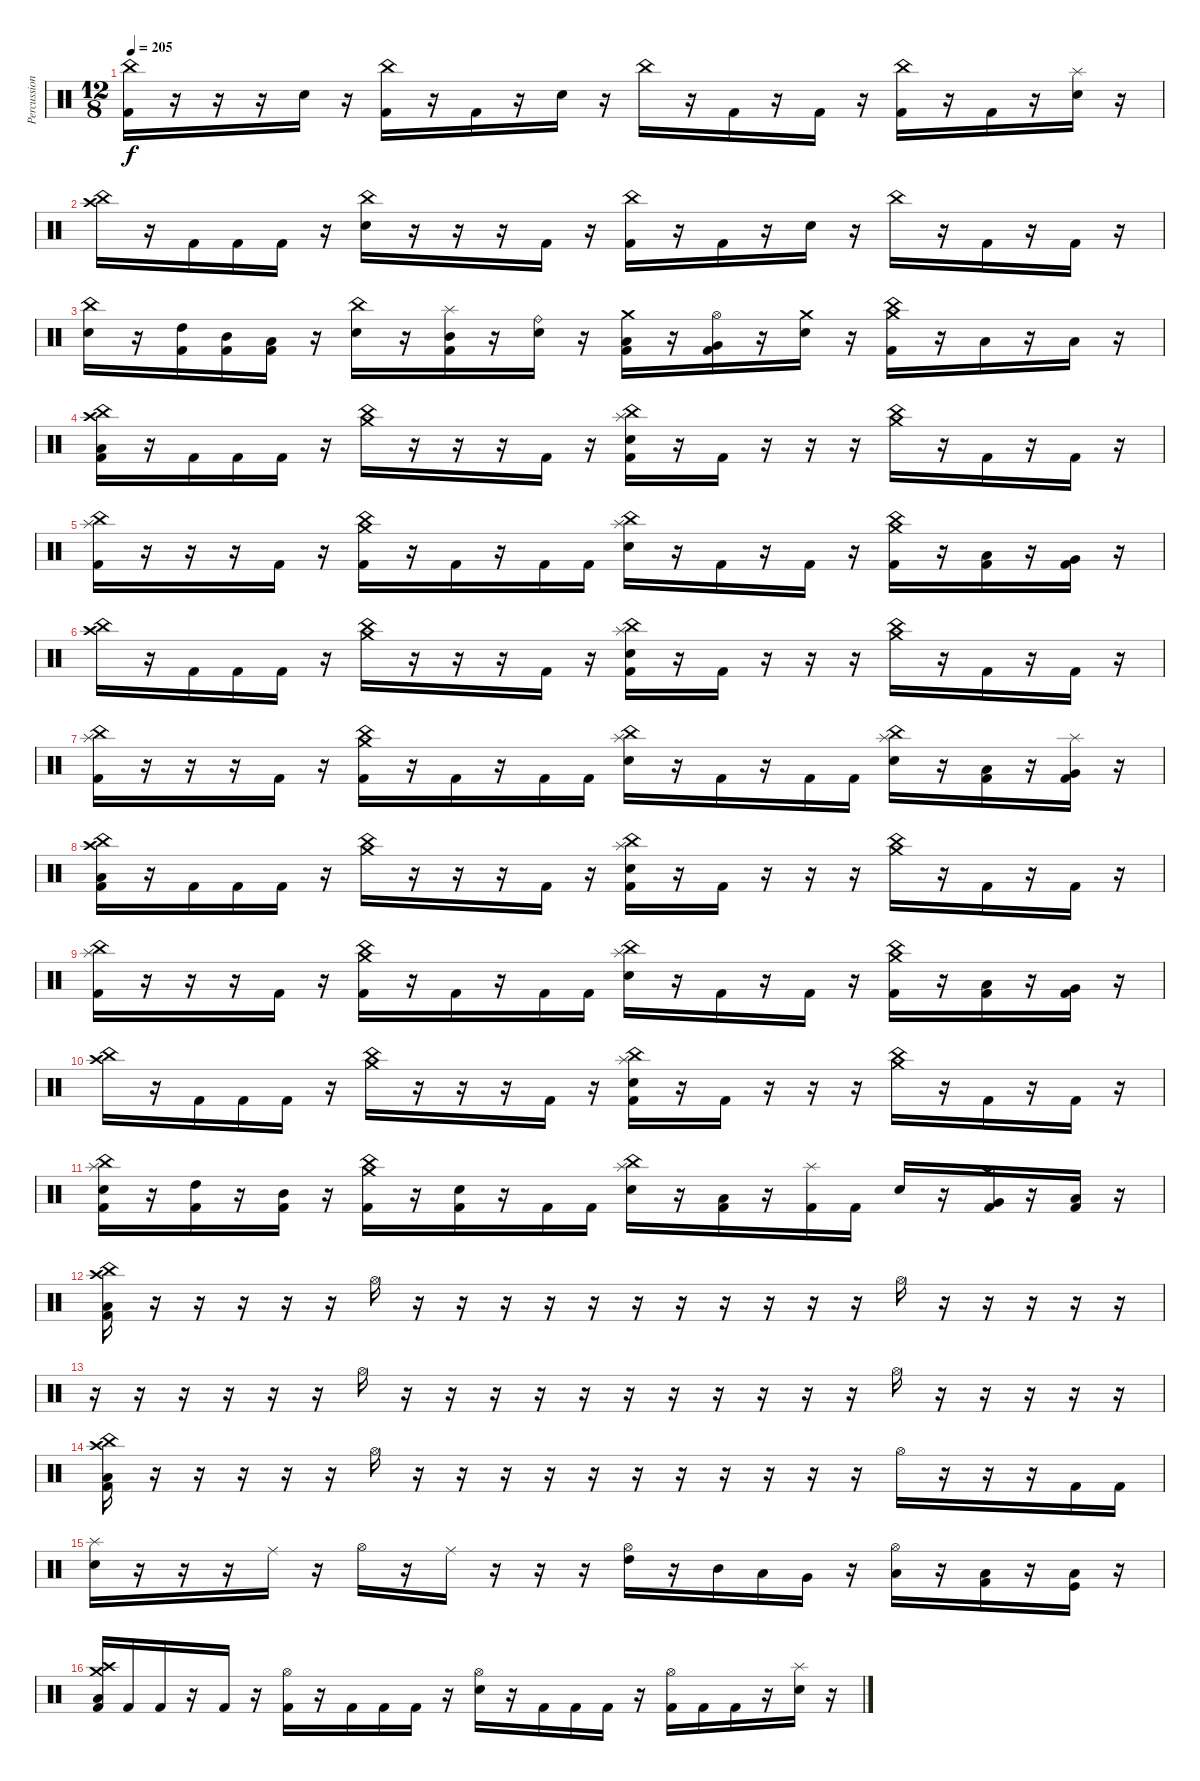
\track ("Percussion" "Percussion") {instrument percussion}
\staff {score}
\articulation defaults
\ts (12 8)
\tempo 205
\clef neutral
\ks c
("China (hit)" "Kick (hit) 2").16{dy f} r.16 r.16 r.16 "Electric Snare (hit)".16 r.16 ("China (hit)" "Kick (hit) 2").16 r.16 "Kick (hit) 2".16 r.16 "Electric Snare (hit)".16 r.16 "China (hit)".16 r.16 "Kick (hit) 2".16 r.16 "Kick (hit) 2".16 r.16 ("China (hit)" "Kick (hit) 2").16 r.16 "Kick (hit) 2".16 r.16 ("Splash (hit)" "Electric Snare (hit)").16 r.16 |
("China (hit)" "Crash high (hit)").16 r.16 "Kick (hit) 2".16 "Kick (hit) 2".16 "Kick (hit) 2".16 r.16 ("China (hit)" "Electric Snare (hit)").16 r.16 r.16 r.16 "Kick (hit) 2".16 r.16 ("China (hit)" "Kick (hit) 2").16 r.16 "Kick (hit) 2".16 r.16 "Electric Snare (hit)".16 r.16 "China (hit)".16 r.16 "Kick (hit) 2".16 r.16 "Kick (hit) 2".16 r.16 |
("China (hit)" "Electric Snare (hit)").16 r.16 ("High Tom (hit)" "Kick (hit) 2").16 ("Mid Tom (hit)" "Kick (hit) 2").16 ("Low Tom (hit)" "Kick (hit) 2").16 r.16 ("China (hit)" "Electric Snare (hit)").16 r.16 ("Splash (hit)" "Mid Tom (hit)" "Kick (hit) 2").16 r.16 ("Ride (bell)" "Electric Snare (hit)").16 r.16 ("Crash medium (hit)" "Low Tom (hit)" "Kick (hit) 2").16 r.16 ("Hi-Hat (open)" "Very Low Tom (hit)" "Kick (hit) 2").16 r.16 ("Crash medium (hit)" "Electric Snare (hit)").16 r.16 ("China (hit)" "Crash medium (hit)" "Kick (hit) 2").16 r.16 "Low Floor Tom (hit)".16 r.16 "Low Floor Tom (hit)".16 r.16 |
("Crash high (hit)" "China (hit)" "Low Floor Tom (hit)" "Kick (hit) 2").16 r.16 "Kick (hit) 2".16 "Kick (hit) 2".16 "Kick (hit) 2".16 r.16 ("China (hit)" "Crash medium (hit)").16 r.16 r.16 r.16 "Kick (hit) 2".16 r.16 ("China (hit)" "Splash (hit)" "Electric Snare (hit)" "Kick (hit) 2").16 r.16 "Kick (hit) 2".16 r.16 r.16 r.16 ("China (hit)" "Crash medium (hit)").16 r.16 "Kick (hit) 2".16 r.16 "Kick (hit) 2".16 r.16 |
("China (hit)" "Splash (hit)" "Kick (hit) 2").16 r.16 r.16 r.16 "Kick (hit) 2".16 r.16 ("China (hit)" "Crash medium (hit)" "Kick (hit) 2").16 r.16 "Kick (hit) 2".16 r.16 "Kick (hit) 2".16 "Kick (hit) 2".16 ("China (hit)" "Splash (hit)" "Electric Snare (hit)").16 r.16 "Kick (hit) 2".16 r.16 "Kick (hit) 2".16 r.16 ("China (hit)" "Crash medium (hit)" "Kick (hit) 2").16 r.16 ("Low Tom (hit)" "Kick (hit) 2").16 r.16 ("Very Low Tom (hit)" "Kick (hit) 2").16 r.16 |
("China (hit)" "Crash high (hit)").16 r.16 "Kick (hit) 2".16 "Kick (hit) 2".16 "Kick (hit) 2".16 r.16 ("China (hit)" "Crash medium (hit)").16 r.16 r.16 r.16 "Kick (hit) 2".16 r.16 ("China (hit)" "Splash (hit)" "Electric Snare (hit)" "Kick (hit) 2").16 r.16 "Kick (hit) 2".16 r.16 r.16 r.16 ("China (hit)" "Crash medium (hit)").16 r.16 "Kick (hit) 2".16 r.16 "Kick (hit) 2".16 r.16 |
("China (hit)" "Splash (hit)" "Kick (hit) 2").16 r.16 r.16 r.16 "Kick (hit) 2".16 r.16 ("China (hit)" "Crash medium (hit)" "Kick (hit) 2").16 r.16 "Kick (hit) 2".16 r.16 "Kick (hit) 2".16 "Kick (hit) 2".16 ("China (hit)" "Splash (hit)" "Electric Snare (hit)").16 r.16 "Kick (hit) 2".16 r.16 "Kick (hit) 2".16 "Kick (hit) 2".16 ("China (hit)" "Splash (hit)" "Electric Snare (hit)").16 r.16 ("Low Tom (hit)" "Kick (hit) 2").16 r.16 ("Splash (hit)" "Very Low Tom (hit)" "Kick (hit) 2").16 r.16 |
("Crash high (hit)" "China (hit)" "Low Floor Tom (hit)" "Kick (hit) 2").16 r.16 "Kick (hit) 2".16 "Kick (hit) 2".16 "Kick (hit) 2".16 r.16 ("China (hit)" "Crash medium (hit)").16 r.16 r.16 r.16 "Kick (hit) 2".16 r.16 ("China (hit)" "Splash (hit)" "Electric Snare (hit)" "Kick (hit) 2").16 r.16 "Kick (hit) 2".16 r.16 r.16 r.16 ("China (hit)" "Crash medium (hit)").16 r.16 "Kick (hit) 2".16 r.16 "Kick (hit) 2".16 r.16 |
("China (hit)" "Splash (hit)" "Kick (hit) 2").16 r.16 r.16 r.16 "Kick (hit) 2".16 r.16 ("China (hit)" "Crash medium (hit)" "Kick (hit) 2").16 r.16 "Kick (hit) 2".16 r.16 "Kick (hit) 2".16 "Kick (hit) 2".16 ("China (hit)" "Splash (hit)" "Electric Snare (hit)").16 r.16 "Kick (hit) 2".16 r.16 "Kick (hit) 2".16 r.16 ("China (hit)" "Crash medium (hit)" "Kick (hit) 2").16 r.16 ("Low Tom (hit)" "Kick (hit) 2").16 r.16 ("Very Low Tom (hit)" "Kick (hit) 2").16 r.16 |
("China (hit)" "Crash high (hit)").16 r.16 "Kick (hit) 2".16 "Kick (hit) 2".16 "Kick (hit) 2".16 r.16 ("China (hit)" "Crash medium (hit)").16 r.16 r.16 r.16 "Kick (hit) 2".16 r.16 ("China (hit)" "Splash (hit)" "Electric Snare (hit)" "Kick (hit) 2").16 r.16 "Kick (hit) 2".16 r.16 r.16 r.16 ("China (hit)" "Crash medium (hit)").16 r.16 "Kick (hit) 2".16 r.16 "Kick (hit) 2".16 r.16 |
("China (hit)" "Splash (hit)" "Electric Snare (hit)" "Kick (hit) 2").16 r.16 ("High Tom (hit)" "Kick (hit) 2").16 r.16 ("Mid Tom (hit)" "Kick (hit) 2").16 r.16 ("China (hit)" "Crash medium (hit)" "Kick (hit) 2").16 r.16 ("Electric Snare (hit)" "Kick (hit) 2").16 r.16 "Kick (hit) 2".16 "Kick (hit) 2".16 ("China (hit)" "Splash (hit)" "Electric Snare (hit)").16 r.16 ("Low Tom (hit)" "Kick (hit) 2").16 r.16 ("Splash (hit)" "Kick (hit) 2").16 "Kick (hit) 2".16 "Electric Snare (hit)".16 r.16 ("Crash medium (hit)" "Very Low Tom (hit)" "Kick (hit) 2").16 r.16 ("Low Floor Tom (hit)" "Kick (hit) 2").16 r.16 |
("China (hit)" "Crash high (hit)" "Low Floor Tom (hit)" "Kick (hit) 2").16 r.16 r.16 r.16 r.16 r.16 "Hi-Hat (open)".16 r.16 r.16 r.16 r.16 r.16 r.16 r.16 r.16 r.16 r.16 r.16 "Hi-Hat (open)".16 r.16 r.16 r.16 r.16 r.16 |
r.16 r.16 r.16 r.16 r.16 r.16 "Hi-Hat (open)".16 r.16 r.16 r.16 r.16 r.16 r.16 r.16 r.16 r.16 r.16 r.16 "Hi-Hat (open)".16 r.16 r.16 r.16 r.16 r.16 |
("China (hit)" "Crash high (hit)" "Low Floor Tom (hit)" "Kick (hit) 2").16 r.16 r.16 r.16 r.16 r.16 "Hi-Hat (open)".16 r.16 r.16 r.16 r.16 r.16 r.16 r.16 r.16 r.16 r.16 r.16 "Hi-Hat (open)".16 r.16 r.16 r.16 "Kick (hit) 2".16 "Kick (hit) 2".16 |
("Splash (hit)" "Electric Snare (hit)").16 r.16 r.16 r.16 "Ride (middle)".16 r.16 "Hi-Hat (open)".16 r.16 "Ride (middle)".16 r.16 r.16 r.16 ("Hi-Hat (open)" "High Tom (hit)").16 r.16 "Mid Tom (hit)".16 "Low Tom (hit)".16 "Very Low Tom (hit)".16 r.16 ("Hi-Hat (open)" "Low Floor Tom (hit)").16 r.16 ("Low Floor Tom (hit)" "Kick (hit) 2").16 r.16 ("Low Floor Tom (hit)" "Kick (hit)").16 r.16 |
("Crash high (hit)" "Crash medium (hit)" "Low Floor Tom (hit)" "Kick (hit) 2").16 "Kick (hit) 2".16 "Kick (hit) 2".16 r.16 "Kick (hit) 2".16 r.16 ("Hi-Hat (open)" "Kick (hit) 2").16 r.16 "Kick (hit) 2".16 "Kick (hit) 2".16 "Kick (hit) 2".16 r.16 ("Hi-Hat (open)" "Electric Snare (hit)").16 r.16 "Kick (hit) 2".16 "Kick (hit) 2".16 "Kick (hit) 2".16 r.16 ("Hi-Hat (open)" "Kick (hit) 2").16 "Kick (hit) 2".16 "Kick (hit) 2".16 r.16 ("Splash (hit)" "Electric Snare (hit)").16 r.16
